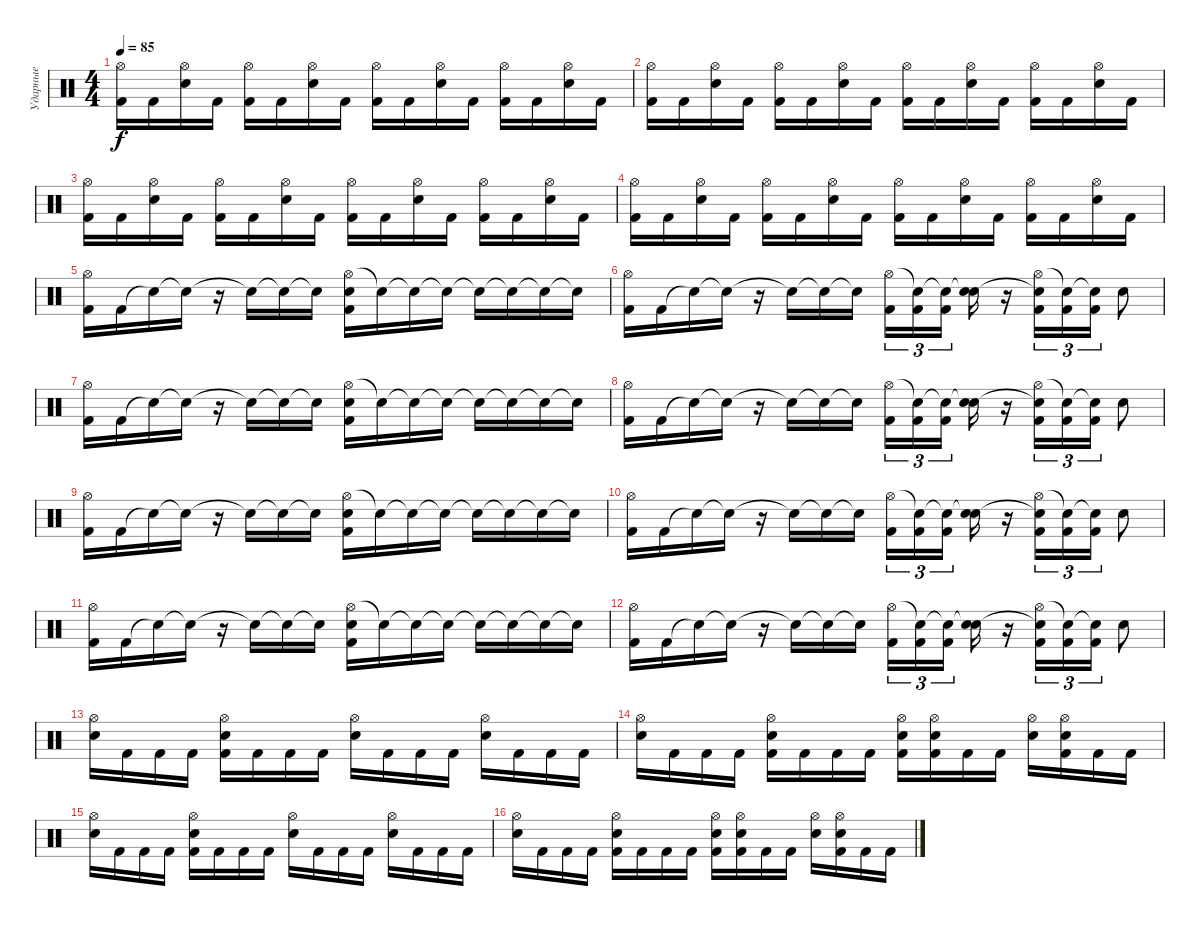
\track ("Ударные" "Ударные") {instrument percussion}
\staff {score}
\articulation defaults
\ts (4 4)
\tempo 85
\clef neutral
\ks c
("Hi-Hat (open)" "Kick (hit) 2").16{dy f} "Kick (hit) 2".16 ("Hi-Hat (open)" "Electric Snare (hit)").16 "Kick (hit) 2".16 ("Hi-Hat (open)" "Kick (hit) 2").16 "Kick (hit) 2".16 ("Hi-Hat (open)" "Electric Snare (hit)").16 "Kick (hit) 2".16 ("Hi-Hat (open)" "Kick (hit) 2").16 "Kick (hit) 2".16 ("Hi-Hat (open)" "Electric Snare (hit)").16 "Kick (hit) 2".16 ("Hi-Hat (open)" "Kick (hit) 2").16 "Kick (hit) 2".16 ("Hi-Hat (open)" "Electric Snare (hit)").16 "Kick (hit) 2".16 |
("Hi-Hat (open)" "Kick (hit) 2").16 "Kick (hit) 2".16 ("Hi-Hat (open)" "Electric Snare (hit)").16 "Kick (hit) 2".16 ("Hi-Hat (open)" "Kick (hit) 2").16 "Kick (hit) 2".16 ("Hi-Hat (open)" "Electric Snare (hit)").16 "Kick (hit) 2".16 ("Hi-Hat (open)" "Kick (hit) 2").16 "Kick (hit) 2".16 ("Hi-Hat (open)" "Electric Snare (hit)").16 "Kick (hit) 2".16 ("Hi-Hat (open)" "Kick (hit) 2").16 "Kick (hit) 2".16 ("Hi-Hat (open)" "Electric Snare (hit)").16 "Kick (hit) 2".16 |
("Hi-Hat (open)" "Kick (hit) 2").16 "Kick (hit) 2".16 ("Hi-Hat (open)" "Electric Snare (hit)").16 "Kick (hit) 2".16 ("Hi-Hat (open)" "Kick (hit) 2").16 "Kick (hit) 2".16 ("Hi-Hat (open)" "Electric Snare (hit)").16 "Kick (hit) 2".16 ("Hi-Hat (open)" "Kick (hit) 2").16 "Kick (hit) 2".16 ("Hi-Hat (open)" "Electric Snare (hit)").16 "Kick (hit) 2".16 ("Hi-Hat (open)" "Kick (hit) 2").16 "Kick (hit) 2".16 ("Hi-Hat (open)" "Electric Snare (hit)").16 "Kick (hit) 2".16 |
("Hi-Hat (open)" "Kick (hit) 2").16 "Kick (hit) 2".16 ("Hi-Hat (open)" "Electric Snare (hit)").16 "Kick (hit) 2".16 ("Hi-Hat (open)" "Kick (hit) 2").16 "Kick (hit) 2".16 ("Hi-Hat (open)" "Electric Snare (hit)").16 "Kick (hit) 2".16 ("Hi-Hat (open)" "Kick (hit) 2").16 "Kick (hit) 2".16 ("Hi-Hat (open)" "Electric Snare (hit)").16 "Kick (hit) 2".16 ("Hi-Hat (open)" "Kick (hit) 2").16 "Kick (hit) 2".16 ("Hi-Hat (open)" "Electric Snare (hit)").16 "Kick (hit) 2".16 |
("Hi-Hat (open)" "Kick (hit) 2").16 "Kick (hit) 2".16 "Snare (hit)"{t}.16 "Snare (hit)"{t}.16 r.16 "Snare (hit)"{t}.16 "Snare (hit)"{t}.16 "Snare (hit)"{t}.16 ("Hi-Hat (open)" "Electric Snare (hit)" "Kick (hit) 2").16 "Snare (hit)"{t}.16 "Snare (hit)"{t}.16 "Snare (hit)"{t}.16 "Snare (hit)"{t}.16 "Snare (hit)"{t}.16 "Snare (hit)"{t}.16 "Snare (hit)"{t}.16 |
("Hi-Hat (open)" "Kick (hit) 2").16 "Kick (hit) 2".16 "Snare (hit)"{t}.16 "Snare (hit)"{t}.16 r.16 "Snare (hit)"{t}.16 "Snare (hit)"{t}.16 "Snare (hit)"{t}.16 ("Hi-Hat (open)" "Kick (hit) 2").16{tu (3 2)} ("Snare (hit)"{t} "Kick (hit) 2").16{tu (3 2)} ("Snare (hit)"{t} "Kick (hit) 2").16{tu (3 2) beam splitsecondary} ("Snare (hit)"{t} "Electric Snare (hit)").16 r.16 ("Hi-Hat (open)" "Snare (hit)"{t} "Kick (hit) 2").16{tu (3 2)} ("Snare (hit)"{t} "Kick (hit) 2").16{tu (3 2)} ("Snare (hit)"{t} "Kick (hit) 2").16{tu (3 2)} "Electric Snare (hit)".8 |
("Hi-Hat (open)" "Kick (hit) 2").16 "Kick (hit) 2".16 "Snare (hit)"{t}.16 "Snare (hit)"{t}.16 r.16 "Snare (hit)"{t}.16 "Snare (hit)"{t}.16 "Snare (hit)"{t}.16 ("Hi-Hat (open)" "Electric Snare (hit)" "Kick (hit) 2").16 "Snare (hit)"{t}.16 "Snare (hit)"{t}.16 "Snare (hit)"{t}.16 "Snare (hit)"{t}.16 "Snare (hit)"{t}.16 "Snare (hit)"{t}.16 "Snare (hit)"{t}.16 |
("Hi-Hat (open)" "Kick (hit) 2").16 "Kick (hit) 2".16 "Snare (hit)"{t}.16 "Snare (hit)"{t}.16 r.16 "Snare (hit)"{t}.16 "Snare (hit)"{t}.16 "Snare (hit)"{t}.16 ("Hi-Hat (open)" "Kick (hit) 2").16{tu (3 2)} ("Snare (hit)"{t} "Kick (hit) 2").16{tu (3 2)} ("Snare (hit)"{t} "Kick (hit) 2").16{tu (3 2) beam splitsecondary} ("Snare (hit)"{t} "Electric Snare (hit)").16 r.16 ("Hi-Hat (open)" "Snare (hit)"{t} "Kick (hit) 2").16{tu (3 2)} ("Snare (hit)"{t} "Kick (hit) 2").16{tu (3 2)} ("Snare (hit)"{t} "Kick (hit) 2").16{tu (3 2)} "Electric Snare (hit)".8 |
("Hi-Hat (open)" "Kick (hit) 2").16 "Kick (hit) 2".16 "Snare (hit)"{t}.16 "Snare (hit)"{t}.16 r.16 "Snare (hit)"{t}.16 "Snare (hit)"{t}.16 "Snare (hit)"{t}.16 ("Hi-Hat (open)" "Electric Snare (hit)" "Kick (hit) 2").16 "Snare (hit)"{t}.16 "Snare (hit)"{t}.16 "Snare (hit)"{t}.16 "Snare (hit)"{t}.16 "Snare (hit)"{t}.16 "Snare (hit)"{t}.16 "Snare (hit)"{t}.16 |
("Hi-Hat (open)" "Kick (hit) 2").16 "Kick (hit) 2".16 "Snare (hit)"{t}.16 "Snare (hit)"{t}.16 r.16 "Snare (hit)"{t}.16 "Snare (hit)"{t}.16 "Snare (hit)"{t}.16 ("Hi-Hat (open)" "Kick (hit) 2").16{tu (3 2)} ("Snare (hit)"{t} "Kick (hit) 2").16{tu (3 2)} ("Snare (hit)"{t} "Kick (hit) 2").16{tu (3 2) beam splitsecondary} ("Snare (hit)"{t} "Electric Snare (hit)").16 r.16 ("Hi-Hat (open)" "Snare (hit)"{t} "Kick (hit) 2").16{tu (3 2)} ("Snare (hit)"{t} "Kick (hit) 2").16{tu (3 2)} ("Snare (hit)"{t} "Kick (hit) 2").16{tu (3 2)} "Electric Snare (hit)".8 |
("Hi-Hat (open)" "Kick (hit) 2").16 "Kick (hit) 2".16 "Snare (hit)"{t}.16 "Snare (hit)"{t}.16 r.16 "Snare (hit)"{t}.16 "Snare (hit)"{t}.16 "Snare (hit)"{t}.16 ("Hi-Hat (open)" "Electric Snare (hit)" "Kick (hit) 2").16 "Snare (hit)"{t}.16 "Snare (hit)"{t}.16 "Snare (hit)"{t}.16 "Snare (hit)"{t}.16 "Snare (hit)"{t}.16 "Snare (hit)"{t}.16 "Snare (hit)"{t}.16 |
("Hi-Hat (open)" "Kick (hit) 2").16 "Kick (hit) 2".16 "Snare (hit)"{t}.16 "Snare (hit)"{t}.16 r.16 "Snare (hit)"{t}.16 "Snare (hit)"{t}.16 "Snare (hit)"{t}.16 ("Hi-Hat (open)" "Kick (hit) 2").16{tu (3 2)} ("Snare (hit)"{t} "Kick (hit) 2").16{tu (3 2)} ("Snare (hit)"{t} "Kick (hit) 2").16{tu (3 2) beam splitsecondary} ("Snare (hit)"{t} "Electric Snare (hit)").16 r.16 ("Hi-Hat (open)" "Snare (hit)"{t} "Kick (hit) 2").16{tu (3 2)} ("Snare (hit)"{t} "Kick (hit) 2").16{tu (3 2)} ("Snare (hit)"{t} "Kick (hit) 2").16{tu (3 2)} "Electric Snare (hit)".8 |
("Hi-Hat (open)" "Electric Snare (hit)").16 "Kick (hit) 2".16 "Kick (hit) 2".16 "Kick (hit) 2".16 ("Hi-Hat (open)" "Electric Snare (hit)" "Kick (hit) 2").16 "Kick (hit) 2".16 "Kick (hit) 2".16 "Kick (hit) 2".16 ("Hi-Hat (open)" "Electric Snare (hit)").16 "Kick (hit) 2".16 "Kick (hit) 2".16 "Kick (hit) 2".16 ("Hi-Hat (open)" "Electric Snare (hit)").16 "Kick (hit) 2".16 "Kick (hit) 2".16 "Kick (hit) 2".16 |
("Hi-Hat (open)" "Electric Snare (hit)").16 "Kick (hit) 2".16 "Kick (hit) 2".16 "Kick (hit) 2".16 ("Hi-Hat (open)" "Electric Snare (hit)" "Kick (hit) 2").16 "Kick (hit) 2".16 "Kick (hit) 2".16 "Kick (hit) 2".16 ("Hi-Hat (open)" "Electric Snare (hit)" "Kick (hit) 2").16 ("Hi-Hat (open)" "Electric Snare (hit)" "Kick (hit) 2").16 "Kick (hit) 2".16 "Kick (hit) 2".16 ("Hi-Hat (open)" "Electric Snare (hit)").16 ("Hi-Hat (open)" "Electric Snare (hit)" "Kick (hit) 2").16 "Kick (hit) 2".16 "Kick (hit) 2".16 |
("Hi-Hat (open)" "Electric Snare (hit)").16 "Kick (hit) 2".16 "Kick (hit) 2".16 "Kick (hit) 2".16 ("Hi-Hat (open)" "Electric Snare (hit)" "Kick (hit) 2").16 "Kick (hit) 2".16 "Kick (hit) 2".16 "Kick (hit) 2".16 ("Hi-Hat (open)" "Electric Snare (hit)").16 "Kick (hit) 2".16 "Kick (hit) 2".16 "Kick (hit) 2".16 ("Hi-Hat (open)" "Electric Snare (hit)").16 "Kick (hit) 2".16 "Kick (hit) 2".16 "Kick (hit) 2".16 |
("Hi-Hat (open)" "Electric Snare (hit)").16 "Kick (hit) 2".16 "Kick (hit) 2".16 "Kick (hit) 2".16 ("Hi-Hat (open)" "Electric Snare (hit)" "Kick (hit) 2").16 "Kick (hit) 2".16 "Kick (hit) 2".16 "Kick (hit) 2".16 ("Hi-Hat (open)" "Electric Snare (hit)" "Kick (hit) 2").16 ("Hi-Hat (open)" "Electric Snare (hit)" "Kick (hit) 2").16 "Kick (hit) 2".16 "Kick (hit) 2".16 ("Hi-Hat (open)" "Electric Snare (hit)").16 ("Hi-Hat (open)" "Electric Snare (hit)" "Kick (hit) 2").16 "Kick (hit) 2".16 "Kick (hit) 2".16
